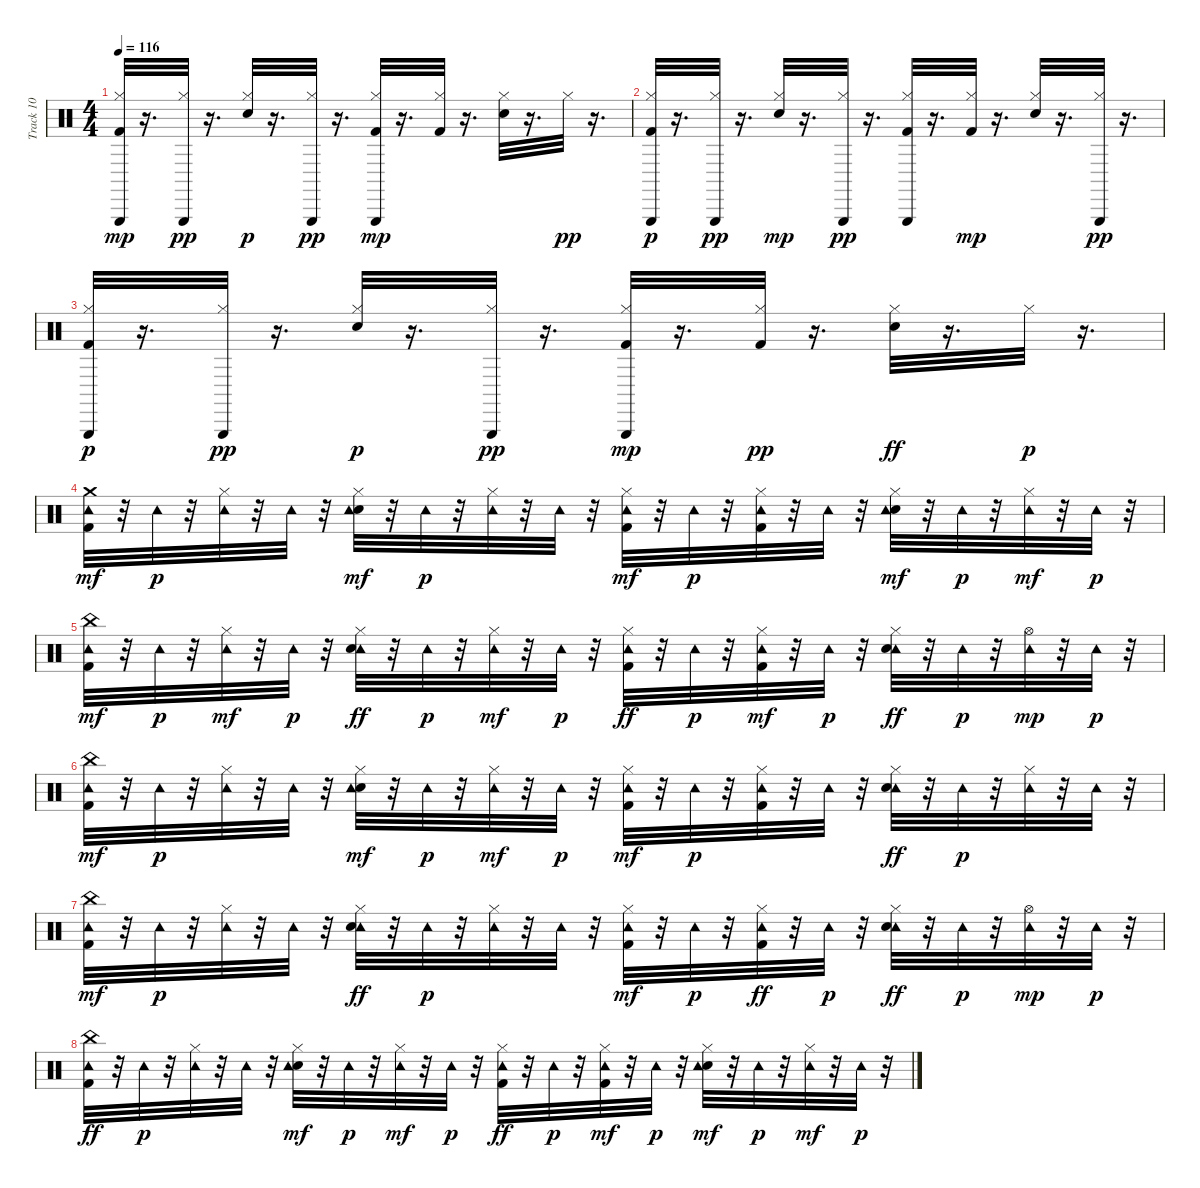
\track ("Track 10" "Track 10") {instrument percussion}
\staff {score}
\articulation defaults
\ts (4 4)
\tempo 116
\clef neutral
\ks c
("Triangle (hit)" "Hi-Hat (closed)" "Kick (hit) 2").32{dy mp} r.16{d} ("Hi-Hat (closed)" "Triangle (hit)").32{dy pp} r.16{d} ("Snare (hit) 2" "Hi-Hat (closed)").32{dy p} r.16{d} ("Hi-Hat (closed)" "Triangle (hit)").32{dy pp} r.16{d} ("Hi-Hat (closed)" "Triangle (hit)" "Kick (hit) 2").32{dy mp} r.16{d} ("Hi-Hat (closed)" "Kick (hit) 2").32 r.16{d} ("Hi-Hat (closed)" "Snare (hit) 2").32 r.16{d} "Hi-Hat (closed)".32{dy pp} r.16{d} |
("Kick (hit) 2" "Triangle (hit)" "Hi-Hat (closed)").32{dy p} r.16{d} ("Triangle (hit)" "Hi-Hat (closed)").32{dy pp} r.16{d} ("Hi-Hat (closed)" "Snare (hit) 2").32{dy mp} r.16{d} ("Hi-Hat (closed)" "Triangle (hit)").32{dy pp} r.16{d} ("Kick (hit) 2" "Hi-Hat (closed)" "Triangle (hit)").32 r.16{d} ("Hi-Hat (closed)" "Kick (hit) 2").32{dy mp} r.16{d} ("Hi-Hat (closed)" "Snare (hit) 2").32 r.16{d} ("Hi-Hat (closed)" "Triangle (hit)").32{dy pp} r.16{d} |
("Triangle (hit)" "Kick (hit) 2" "Hi-Hat (closed)").32{dy p} r.16{d} ("Triangle (hit)" "Hi-Hat (closed)").32{dy pp} r.16{d} ("Snare (hit) 2" "Hi-Hat (closed)").32{dy p} r.16{d} ("Triangle (hit)" "Hi-Hat (closed)").32{dy pp} r.16{d} ("Hi-Hat (closed)" "Triangle (hit)" "Kick (hit) 2").32{dy mp} r.16{d} ("Kick (hit) 2" "Hi-Hat (closed)").32{dy pp} r.16{d} ("Hi-Hat (closed)" "Snare (hit) 2").32{dy ff} r.16{d} "Hi-Hat (closed)".32{dy p} r.16{d} |
("Crash medium (hit)" "Kick (hit) 2" "Tambourine (hit)").32{dy mf} r.32 "Tambourine (hit)".32{dy p} r.32 ("Tambourine (hit)" "Hi-Hat (closed)").32 r.32 "Tambourine (hit)".32 r.32 ("Snare (hit) 2" "Tambourine (hit)" "Hi-Hat (closed)").32{dy mf} r.32 "Tambourine (hit)".32{dy p} r.32 ("Tambourine (hit)" "Hi-Hat (closed)").32 r.32 "Tambourine (hit)".32 r.32 ("Kick (hit) 2" "Tambourine (hit)" "Hi-Hat (closed)").32{dy mf} r.32 "Tambourine (hit)".32{dy p} r.32 ("Tambourine (hit)" "Kick (hit) 2" "Hi-Hat (closed)").32 r.32 "Tambourine (hit)".32 r.32 ("Hi-Hat (closed)" "Snare (hit) 2" "Tambourine (hit)").32{dy mf} r.32 "Tambourine (hit)".32{dy p} r.32 ("Hi-Hat (closed)" "Tambourine (hit)").32{dy mf} r.32 "Tambourine (hit)".32{dy p} r.32 |
("Tambourine (hit)" "Kick (hit) 2" "China (hit)").32{dy mf} r.32 "Tambourine (hit)".32{dy p} r.32 ("Hi-Hat (closed)" "Tambourine (hit)").32{dy mf} r.32 "Tambourine (hit)".32{dy p} r.32 ("Tambourine (hit)" "Snare (hit) 2" "Hi-Hat (closed)").32{dy ff} r.32 "Tambourine (hit)".32{dy p} r.32 ("Hi-Hat (closed)" "Tambourine (hit)").32{dy mf} r.32 "Tambourine (hit)".32{dy p} r.32 ("Hi-Hat (closed)" "Tambourine (hit)" "Kick (hit) 2").32{dy ff} r.32 "Tambourine (hit)".32{dy p} r.32 ("Kick (hit) 2" "Hi-Hat (closed)" "Tambourine (hit)").32{dy mf} r.32 "Tambourine (hit)".32{dy p} r.32 ("Hi-Hat (closed)" "Tambourine (hit)" "Snare (hit) 2").32{dy ff} r.32 "Tambourine (hit)".32{dy p} r.32 ("Tambourine (hit)" "Hi-Hat (open)").32{dy mp} r.32 "Tambourine (hit)".32{dy p} r.32 |
("Kick (hit) 2" "China (hit)" "Tambourine (hit)").32{dy mf} r.32 "Tambourine (hit)".32{dy p} r.32 ("Tambourine (hit)" "Hi-Hat (closed)").32 r.32 "Tambourine (hit)".32 r.32 ("Snare (hit) 2" "Tambourine (hit)" "Hi-Hat (closed)").32{dy mf} r.32 "Tambourine (hit)".32{dy p} r.32 ("Hi-Hat (closed)" "Tambourine (hit)").32{dy mf} r.32 "Tambourine (hit)".32{dy p} r.32 ("Hi-Hat (closed)" "Kick (hit) 2" "Tambourine (hit)").32{dy mf} r.32 "Tambourine (hit)".32{dy p} r.32 ("Tambourine (hit)" "Kick (hit) 2" "Hi-Hat (closed)").32 r.32 "Tambourine (hit)".32 r.32 ("Tambourine (hit)" "Snare (hit) 2" "Hi-Hat (closed)").32{dy ff} r.32 "Tambourine (hit)".32{dy p} r.32 ("Tambourine (hit)" "Hi-Hat (closed)").32 r.32 "Tambourine (hit)".32 r.32 |
("China (hit)" "Kick (hit) 2" "Tambourine (hit)").32{dy mf} r.32 "Tambourine (hit)".32{dy p} r.32 ("Tambourine (hit)" "Hi-Hat (closed)").32 r.32 "Tambourine (hit)".32 r.32 ("Hi-Hat (closed)" "Tambourine (hit)" "Snare (hit) 2").32{dy ff} r.32 "Tambourine (hit)".32{dy p} r.32 ("Tambourine (hit)" "Hi-Hat (closed)").32 r.32 "Tambourine (hit)".32 r.32 ("Hi-Hat (closed)" "Kick (hit) 2" "Tambourine (hit)").32{dy mf} r.32 "Tambourine (hit)".32{dy p} r.32 ("Tambourine (hit)" "Hi-Hat (closed)" "Kick (hit) 2").32{dy ff} r.32 "Tambourine (hit)".32{dy p} r.32 ("Tambourine (hit)" "Snare (hit) 2" "Hi-Hat (closed)").32{dy ff} r.32 "Tambourine (hit)".32{dy p} r.32 ("Tambourine (hit)" "Hi-Hat (open)").32{dy mp} r.32 "Tambourine (hit)".32{dy p} r.32 |
("Tambourine (hit)" "China (hit)" "Kick (hit) 2").32{dy ff} r.32 "Tambourine (hit)".32{dy p} r.32 ("Tambourine (hit)" "Hi-Hat (closed)").32 r.32 "Tambourine (hit)".32 r.32 ("Hi-Hat (closed)" "Snare (hit) 2" "Tambourine (hit)").32{dy mf} r.32 "Tambourine (hit)".32{dy p} r.32 ("Hi-Hat (closed)" "Tambourine (hit)").32{dy mf} r.32 "Tambourine (hit)".32{dy p} r.32 ("Tambourine (hit)" "Kick (hit) 2" "Hi-Hat (closed)").32{dy ff} r.32 "Tambourine (hit)".32{dy p} r.32 ("Kick (hit) 2" "Hi-Hat (closed)" "Tambourine (hit)").32{dy mf} r.32 "Tambourine (hit)".32{dy p} r.32 ("Hi-Hat (closed)" "Snare (hit) 2" "Tambourine (hit)").32{dy mf} r.32 "Tambourine (hit)".32{dy p} r.32 ("Hi-Hat (closed)" "Tambourine (hit)").32{dy mf} r.32 "Tambourine (hit)".32{dy p} r.32
